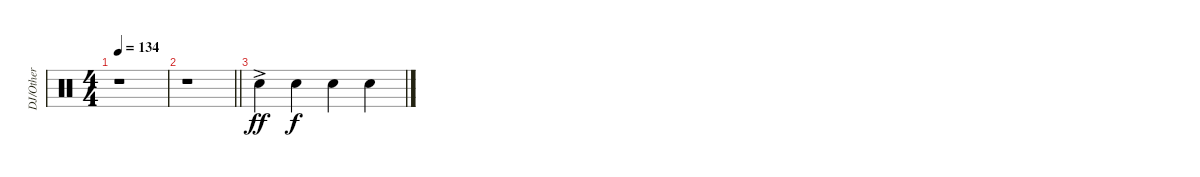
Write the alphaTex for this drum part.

\track ("DJ/Other" "DJ/Other") {instrument percussion}
\staff {score}
\articulation defaults
\ts (4 4)
\tempo 134
\clef neutral
\ks c
r.1{dy f} |
\barLineRight lightlight
r.1 |
"Snare (hit) 2"{ac}.4{dy ff volume 0} "Snare (hit) 2".4{dy f} "Snare (hit) 2".4 "Snare (hit) 2".4
